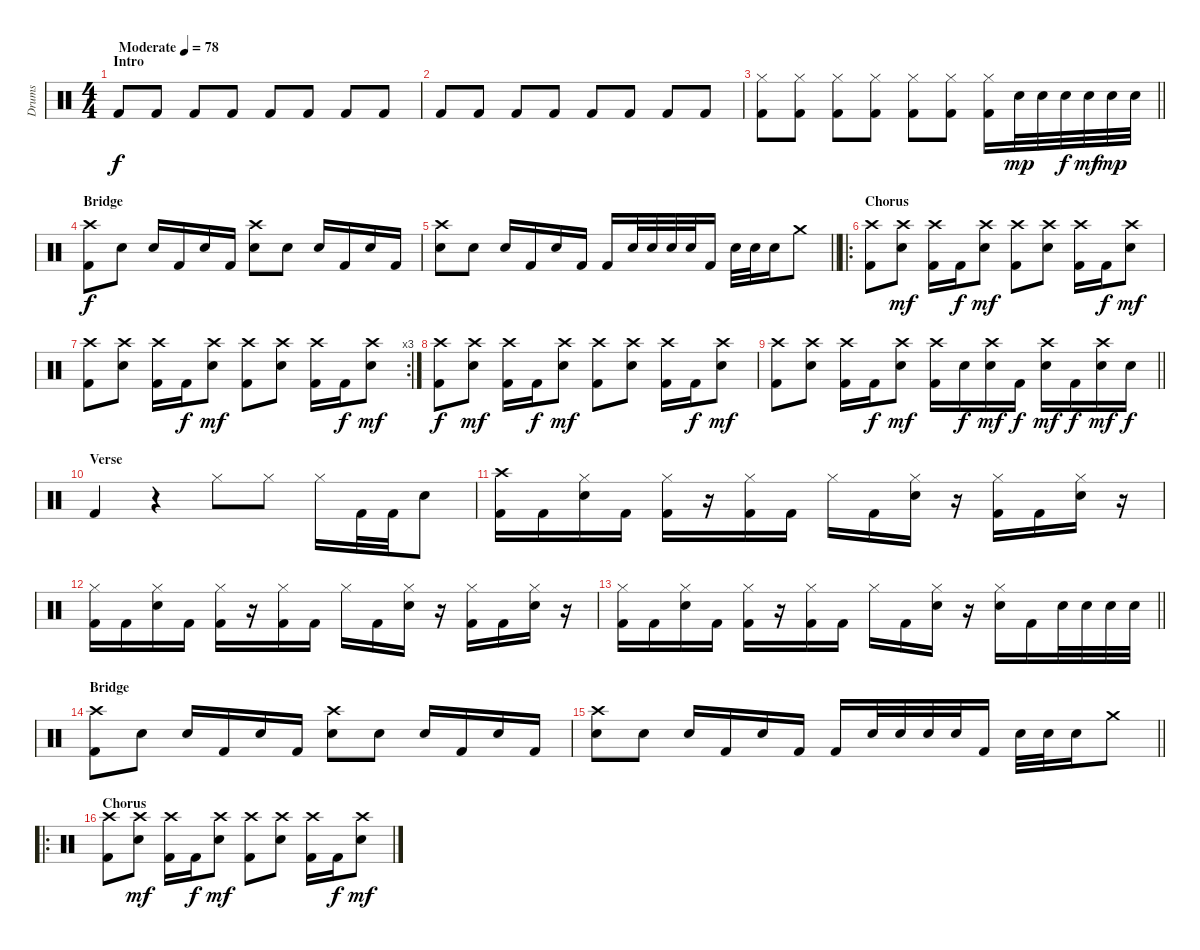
\track ("Drums" "Drums") {instrument percussion}
\staff {score}
\articulation defaults
\ts (4 4)
\section ("" "Intro")
\tempo (78 "Moderate")
\clef neutral
\ks c "Kick (hit) 2".8{dy f} "Kick (hit) 2".8 "Kick (hit) 2".8 "Kick (hit) 2".8 "Kick (hit) 2".8 "Kick (hit) 2".8 "Kick (hit) 2".8 "Kick (hit) 2".8
|
"Kick (hit) 2".8 "Kick (hit) 2".8 "Kick (hit) 2".8 "Kick (hit) 2".8 "Kick (hit) 2".8 "Kick (hit) 2".8 "Kick (hit) 2".8 "Kick (hit) 2".8 |
\barLineRight lightlight
("Hi-Hat (closed)" "Kick (hit) 2").8 ("Hi-Hat (closed)" "Kick (hit) 2").8 ("Hi-Hat (closed)" "Kick (hit) 2").8 ("Hi-Hat (closed)" "Kick (hit) 2").8 ("Hi-Hat (closed)" "Kick (hit) 2").8 ("Hi-Hat (closed)" "Kick (hit) 2").8 ("Hi-Hat (closed)" "Kick (hit) 2").16 "Electric Snare (hit)".32{dy mp} "Electric Snare (hit)".32 "Electric Snare (hit)".32{dy f} "Electric Snare (hit)".32{dy mf} "Electric Snare (hit)".32{dy mp} "Electric Snare (hit)".32 |
\section ("" "Bridge")
("Crash high (hit)" "Kick (hit) 2").8{dy f} "Electric Snare (hit)".8 "Electric Snare (hit)".16 "Kick (hit) 2".16 "Electric Snare (hit)".16 "Kick (hit) 2".16 ("Crash high (hit)" "Electric Snare (hit)").8 "Electric Snare (hit)".8 "Electric Snare (hit)".16 "Kick (hit) 2".16 "Electric Snare (hit)".16 "Kick (hit) 2".16 |
\barLineRight lightlight
("Crash high (hit)" "Electric Snare (hit)").8 "Electric Snare (hit)".8 "Electric Snare (hit)".16 "Kick (hit) 2".16 "Electric Snare (hit)".16 "Kick (hit) 2".16 "Kick (hit) 2".16 "Electric Snare (hit)".32 "Electric Snare (hit)".32 "Electric Snare (hit)".32 "Electric Snare (hit)".32 "Kick (hit) 2".16 "Electric Snare (hit)".32 "Electric Snare (hit)".32 "Electric Snare (hit)".16 "Crash medium (hit)".8 |
\ro
\section ("" "Chorus")
("Crash high (hit)" "Kick (hit) 2").8 ("Crash high (hit)" "Electric Snare (hit)").8{dy mf} ("Crash high (hit)" "Kick (hit) 2").16 "Kick (hit) 2".16{dy f} ("Crash high (hit)" "Electric Snare (hit)").8{dy mf} ("Crash high (hit)" "Kick (hit) 2").8 ("Crash high (hit)" "Electric Snare (hit)").8 ("Crash high (hit)" "Kick (hit) 2").16 "Kick (hit) 2".16{dy f} ("Crash high (hit)" "Electric Snare (hit)").8{dy mf} |
\rc 3
("Crash high (hit)" "Kick (hit) 2").8 ("Crash high (hit)" "Electric Snare (hit)").8 ("Crash high (hit)" "Kick (hit) 2").16 "Kick (hit) 2".16{dy f} ("Crash high (hit)" "Electric Snare (hit)").8{dy mf} ("Crash high (hit)" "Kick (hit) 2").8 ("Crash high (hit)" "Electric Snare (hit)").8 ("Crash high (hit)" "Kick (hit) 2").16 "Kick (hit) 2".16{dy f} ("Crash high (hit)" "Electric Snare (hit)").8{dy mf} |
("Crash high (hit)" "Kick (hit) 2").8{dy f} ("Crash high (hit)" "Electric Snare (hit)").8{dy mf} ("Crash high (hit)" "Kick (hit) 2").16 "Kick (hit) 2".16{dy f} ("Crash high (hit)" "Electric Snare (hit)").8{dy mf} ("Crash high (hit)" "Kick (hit) 2").8 ("Crash high (hit)" "Electric Snare (hit)").8 ("Crash high (hit)" "Kick (hit) 2").16 "Kick (hit) 2".16{dy f} ("Crash high (hit)" "Electric Snare (hit)").8{dy mf} |
\barLineRight lightlight
("Crash high (hit)" "Kick (hit) 2").8 ("Crash high (hit)" "Electric Snare (hit)").8 ("Crash high (hit)" "Kick (hit) 2").16 "Kick (hit) 2".16{dy f} ("Crash high (hit)" "Electric Snare (hit)").8{dy mf} ("Crash high (hit)" "Kick (hit) 2").16 "Electric Snare (hit)".16{dy f} ("Crash high (hit)" "Electric Snare (hit)").16{dy mf} "Kick (hit) 2".16{dy f} ("Crash high (hit)" "Electric Snare (hit)").16{dy mf} "Kick (hit) 2".16{dy f} ("Crash high (hit)" "Electric Snare (hit)").16{dy mf} "Electric Snare (hit)".16{dy f} |
\section ("" "Verse")
"Kick (hit) 2".4 r.4 "Hi-Hat (closed)".8 "Hi-Hat (closed)".8 "Hi-Hat (closed)".16 "Kick (hit) 2".32 "Kick (hit) 2".32 "Electric Snare (hit)".8 |
("Crash high (hit)" "Kick (hit) 2").16 "Kick (hit) 2".16 ("Hi-Hat (closed)" "Electric Snare (hit)").16 "Kick (hit) 2".16 ("Hi-Hat (closed)" "Kick (hit) 2").16 r.16 ("Hi-Hat (closed)" "Kick (hit) 2").16 "Kick (hit) 2".16 "Hi-Hat (closed)".16 "Kick (hit) 2".16 ("Hi-Hat (closed)" "Electric Snare (hit)").16 r.16 ("Hi-Hat (closed)" "Kick (hit) 2").16 "Kick (hit) 2".16 ("Hi-Hat (closed)" "Electric Snare (hit)").16 r.16 |
("Hi-Hat (closed)" "Kick (hit) 2").16 "Kick (hit) 2".16 ("Hi-Hat (closed)" "Electric Snare (hit)").16 "Kick (hit) 2".16 ("Hi-Hat (closed)" "Kick (hit) 2").16 r.16 ("Hi-Hat (closed)" "Kick (hit) 2").16 "Kick (hit) 2".16 "Hi-Hat (closed)".16 "Kick (hit) 2".16 ("Hi-Hat (closed)" "Electric Snare (hit)").16 r.16 ("Hi-Hat (closed)" "Kick (hit) 2").16 "Kick (hit) 2".16 ("Hi-Hat (closed)" "Electric Snare (hit)").16 r.16 |
\barLineRight lightlight
("Hi-Hat (closed)" "Kick (hit) 2").16 "Kick (hit) 2".16 ("Hi-Hat (closed)" "Electric Snare (hit)").16 "Kick (hit) 2".16 ("Hi-Hat (closed)" "Kick (hit) 2").16 r.16 ("Hi-Hat (closed)" "Kick (hit) 2").16 "Kick (hit) 2".16 "Hi-Hat (closed)".16 "Kick (hit) 2".16 ("Hi-Hat (closed)" "Electric Snare (hit)").16 r.16 ("Hi-Hat (closed)" "Electric Snare (hit)").16 "Kick (hit) 2".16 "Electric Snare (hit)".32 "Electric Snare (hit)".32 "Electric Snare (hit)".32 "Electric Snare (hit)".32 |
\section ("" "Bridge")
("Crash high (hit)" "Kick (hit) 2").8 "Electric Snare (hit)".8 "Electric Snare (hit)".16 "Kick (hit) 2".16 "Electric Snare (hit)".16 "Kick (hit) 2".16 ("Crash high (hit)" "Electric Snare (hit)").8 "Electric Snare (hit)".8 "Electric Snare (hit)".16 "Kick (hit) 2".16 "Electric Snare (hit)".16 "Kick (hit) 2".16 |
\barLineRight lightlight
("Crash high (hit)" "Electric Snare (hit)").8 "Electric Snare (hit)".8 "Electric Snare (hit)".16 "Kick (hit) 2".16 "Electric Snare (hit)".16 "Kick (hit) 2".16 "Kick (hit) 2".16 "Electric Snare (hit)".32 "Electric Snare (hit)".32 "Electric Snare (hit)".32 "Electric Snare (hit)".32 "Kick (hit) 2".16 "Electric Snare (hit)".32 "Electric Snare (hit)".32 "Electric Snare (hit)".16 "Crash medium (hit)".8 |
\ro
\section ("" "Chorus")
("Crash high (hit)" "Kick (hit) 2").8 ("Crash high (hit)" "Electric Snare (hit)").8{dy mf} ("Crash high (hit)" "Kick (hit) 2").16 "Kick (hit) 2".16{dy f} ("Crash high (hit)" "Electric Snare (hit)").8{dy mf} ("Crash high (hit)" "Kick (hit) 2").8 ("Crash high (hit)" "Electric Snare (hit)").8 ("Crash high (hit)" "Kick (hit) 2").16 "Kick (hit) 2".16{dy f} ("Crash high (hit)" "Electric Snare (hit)").8{dy mf}
